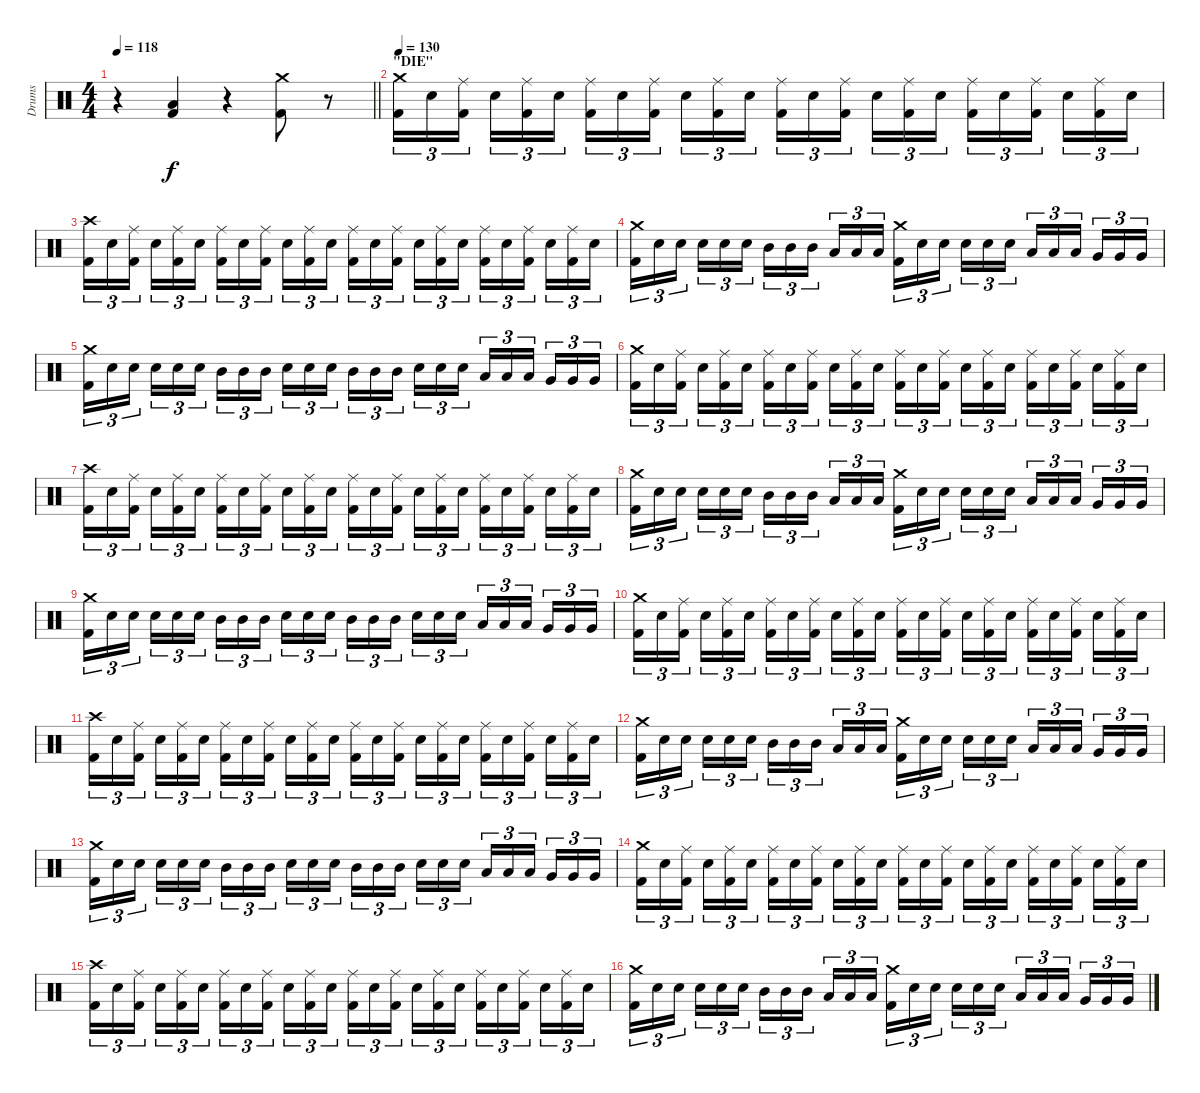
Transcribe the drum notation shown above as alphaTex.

\track ("Drums" "Drums") {instrument percussion}
\staff {score}
\articulation defaults
\ts (4 4)
\tempo 118
\clef neutral
\barLineRight lightlight
\ks c
r.4{dy f} ("Low Floor Tom (hit)" "Kick (hit) 2").4 r.4 ("Crash medium (hit)" "Kick (hit) 2").8 r.8{volume 0} |
\section ("" "\"DIE\"")
\tempo 130
("Crash medium (hit)" "Kick (hit) 2").16{tu (3 2) volume 16} "Electric Snare (hit)".16{tu (3 2)} ("Ride (middle)" "Kick (hit) 2").16{tu (3 2) beam splitsecondary} "Electric Snare (hit)".16{tu (3 2)} ("Ride (middle)" "Kick (hit) 2").16{tu (3 2)} "Electric Snare (hit)".16{tu (3 2)} ("Ride (middle)" "Kick (hit) 2").16{tu (3 2)} "Electric Snare (hit)".16{tu (3 2)} ("Ride (middle)" "Kick (hit) 2").16{tu (3 2) beam splitsecondary} "Electric Snare (hit)".16{tu (3 2)} ("Ride (middle)" "Kick (hit) 2").16{tu (3 2)} "Electric Snare (hit)".16{tu (3 2)} ("Ride (middle)" "Kick (hit) 2").16{tu (3 2)} "Electric Snare (hit)".16{tu (3 2)} ("Ride (middle)" "Kick (hit) 2").16{tu (3 2) beam splitsecondary} "Electric Snare (hit)".16{tu (3 2)} ("Ride (middle)" "Kick (hit) 2").16{tu (3 2)} "Electric Snare (hit)".16{tu (3 2)} ("Ride (middle)" "Kick (hit) 2").16{tu (3 2)} "Electric Snare (hit)".16{tu (3 2)} ("Ride (middle)" "Kick (hit) 2").16{tu (3 2) beam splitsecondary} "Electric Snare (hit)".16{tu (3 2)} ("Ride (middle)" "Kick (hit) 2").16{tu (3 2)} "Electric Snare (hit)".16{tu (3 2)} |
("Crash high (hit)" "Kick (hit) 2").16{tu (3 2)} "Electric Snare (hit)".16{tu (3 2)} ("Ride (middle)" "Kick (hit) 2").16{tu (3 2) beam splitsecondary} "Electric Snare (hit)".16{tu (3 2)} ("Ride (middle)" "Kick (hit) 2").16{tu (3 2)} "Electric Snare (hit)".16{tu (3 2)} ("Ride (middle)" "Kick (hit) 2").16{tu (3 2)} "Electric Snare (hit)".16{tu (3 2)} ("Ride (middle)" "Kick (hit) 2").16{tu (3 2) beam splitsecondary} "Electric Snare (hit)".16{tu (3 2)} ("Ride (middle)" "Kick (hit) 2").16{tu (3 2)} "Electric Snare (hit)".16{tu (3 2)} ("Ride (middle)" "Kick (hit) 2").16{tu (3 2)} "Electric Snare (hit)".16{tu (3 2)} ("Ride (middle)" "Kick (hit) 2").16{tu (3 2) beam splitsecondary} "Electric Snare (hit)".16{tu (3 2)} ("Ride (middle)" "Kick (hit) 2").16{tu (3 2)} "Electric Snare (hit)".16{tu (3 2)} ("Ride (middle)" "Kick (hit) 2").16{tu (3 2)} "Electric Snare (hit)".16{tu (3 2)} ("Ride (middle)" "Kick (hit) 2").16{tu (3 2) beam splitsecondary} "Electric Snare (hit)".16{tu (3 2)} ("Ride (middle)" "Kick (hit) 2").16{tu (3 2)} "Electric Snare (hit)".16{tu (3 2)} |
("Crash medium (hit)" "Kick (hit) 2").16{tu (3 2)} "Electric Snare (hit)".16{tu (3 2)} "Electric Snare (hit)".16{tu (3 2) beam splitsecondary} "Electric Snare (hit)".16{tu (3 2)} "Electric Snare (hit)".16{tu (3 2)} "Electric Snare (hit)".16{tu (3 2)} "Mid Tom (hit)".16{tu (3 2)} "Mid Tom (hit)".16{tu (3 2)} "Mid Tom (hit)".16{tu (3 2) beam splitsecondary} "Low Tom (hit)".16{tu (3 2)} "Low Tom (hit)".16{tu (3 2)} "Low Tom (hit)".16{tu (3 2)} ("Crash medium (hit)" "Kick (hit) 2").16{tu (3 2)} "Electric Snare (hit)".16{tu (3 2)} "Electric Snare (hit)".16{tu (3 2) beam splitsecondary} "Electric Snare (hit)".16{tu (3 2)} "Electric Snare (hit)".16{tu (3 2)} "Electric Snare (hit)".16{tu (3 2)} "Low Tom (hit)".16{tu (3 2)} "Low Tom (hit)".16{tu (3 2)} "Low Tom (hit)".16{tu (3 2) beam splitsecondary} "Very Low Tom (hit)".16{tu (3 2)} "Very Low Tom (hit)".16{tu (3 2)} "Very Low Tom (hit)".16{tu (3 2)} |
("Crash medium (hit)" "Kick (hit) 2").16{tu (3 2)} "Electric Snare (hit)".16{tu (3 2)} "Electric Snare (hit)".16{tu (3 2) beam splitsecondary} "Electric Snare (hit)".16{tu (3 2)} "Electric Snare (hit)".16{tu (3 2)} "Electric Snare (hit)".16{tu (3 2)} "Mid Tom (hit)".16{tu (3 2)} "Mid Tom (hit)".16{tu (3 2)} "Mid Tom (hit)".16{tu (3 2) beam splitsecondary} "Electric Snare (hit)".16{tu (3 2)} "Electric Snare (hit)".16{tu (3 2)} "Electric Snare (hit)".16{tu (3 2)} "Mid Tom (hit)".16{tu (3 2)} "Mid Tom (hit)".16{tu (3 2)} "Mid Tom (hit)".16{tu (3 2) beam splitsecondary} "Electric Snare (hit)".16{tu (3 2)} "Electric Snare (hit)".16{tu (3 2)} "Electric Snare (hit)".16{tu (3 2)} "Low Tom (hit)".16{tu (3 2)} "Low Tom (hit)".16{tu (3 2)} "Low Tom (hit)".16{tu (3 2) beam splitsecondary} "Very Low Tom (hit)".16{tu (3 2)} "Very Low Tom (hit)".16{tu (3 2)} "Very Low Tom (hit)".16{tu (3 2)} |
("Crash medium (hit)" "Kick (hit) 2").16{tu (3 2)} "Electric Snare (hit)".16{tu (3 2)} ("Ride (middle)" "Kick (hit) 2").16{tu (3 2) beam splitsecondary} "Electric Snare (hit)".16{tu (3 2)} ("Ride (middle)" "Kick (hit) 2").16{tu (3 2)} "Electric Snare (hit)".16{tu (3 2)} ("Ride (middle)" "Kick (hit) 2").16{tu (3 2)} "Electric Snare (hit)".16{tu (3 2)} ("Ride (middle)" "Kick (hit) 2").16{tu (3 2) beam splitsecondary} "Electric Snare (hit)".16{tu (3 2)} ("Ride (middle)" "Kick (hit) 2").16{tu (3 2)} "Electric Snare (hit)".16{tu (3 2)} ("Ride (middle)" "Kick (hit) 2").16{tu (3 2)} "Electric Snare (hit)".16{tu (3 2)} ("Ride (middle)" "Kick (hit) 2").16{tu (3 2) beam splitsecondary} "Electric Snare (hit)".16{tu (3 2)} ("Ride (middle)" "Kick (hit) 2").16{tu (3 2)} "Electric Snare (hit)".16{tu (3 2)} ("Ride (middle)" "Kick (hit) 2").16{tu (3 2)} "Electric Snare (hit)".16{tu (3 2)} ("Ride (middle)" "Kick (hit) 2").16{tu (3 2) beam splitsecondary} "Electric Snare (hit)".16{tu (3 2)} ("Ride (middle)" "Kick (hit) 2").16{tu (3 2)} "Electric Snare (hit)".16{tu (3 2)} |
("Crash high (hit)" "Kick (hit) 2").16{tu (3 2)} "Electric Snare (hit)".16{tu (3 2)} ("Ride (middle)" "Kick (hit) 2").16{tu (3 2) beam splitsecondary} "Electric Snare (hit)".16{tu (3 2)} ("Ride (middle)" "Kick (hit) 2").16{tu (3 2)} "Electric Snare (hit)".16{tu (3 2)} ("Ride (middle)" "Kick (hit) 2").16{tu (3 2)} "Electric Snare (hit)".16{tu (3 2)} ("Ride (middle)" "Kick (hit) 2").16{tu (3 2) beam splitsecondary} "Electric Snare (hit)".16{tu (3 2)} ("Ride (middle)" "Kick (hit) 2").16{tu (3 2)} "Electric Snare (hit)".16{tu (3 2)} ("Ride (middle)" "Kick (hit) 2").16{tu (3 2)} "Electric Snare (hit)".16{tu (3 2)} ("Ride (middle)" "Kick (hit) 2").16{tu (3 2) beam splitsecondary} "Electric Snare (hit)".16{tu (3 2)} ("Ride (middle)" "Kick (hit) 2").16{tu (3 2)} "Electric Snare (hit)".16{tu (3 2)} ("Ride (middle)" "Kick (hit) 2").16{tu (3 2)} "Electric Snare (hit)".16{tu (3 2)} ("Ride (middle)" "Kick (hit) 2").16{tu (3 2) beam splitsecondary} "Electric Snare (hit)".16{tu (3 2)} ("Ride (middle)" "Kick (hit) 2").16{tu (3 2)} "Electric Snare (hit)".16{tu (3 2)} |
("Crash medium (hit)" "Kick (hit) 2").16{tu (3 2)} "Electric Snare (hit)".16{tu (3 2)} "Electric Snare (hit)".16{tu (3 2) beam splitsecondary} "Electric Snare (hit)".16{tu (3 2)} "Electric Snare (hit)".16{tu (3 2)} "Electric Snare (hit)".16{tu (3 2)} "Mid Tom (hit)".16{tu (3 2)} "Mid Tom (hit)".16{tu (3 2)} "Mid Tom (hit)".16{tu (3 2) beam splitsecondary} "Low Tom (hit)".16{tu (3 2)} "Low Tom (hit)".16{tu (3 2)} "Low Tom (hit)".16{tu (3 2)} ("Crash medium (hit)" "Kick (hit) 2").16{tu (3 2)} "Electric Snare (hit)".16{tu (3 2)} "Electric Snare (hit)".16{tu (3 2) beam splitsecondary} "Electric Snare (hit)".16{tu (3 2)} "Electric Snare (hit)".16{tu (3 2)} "Electric Snare (hit)".16{tu (3 2)} "Low Tom (hit)".16{tu (3 2)} "Low Tom (hit)".16{tu (3 2)} "Low Tom (hit)".16{tu (3 2) beam splitsecondary} "Very Low Tom (hit)".16{tu (3 2)} "Very Low Tom (hit)".16{tu (3 2)} "Very Low Tom (hit)".16{tu (3 2)} |
("Crash medium (hit)" "Kick (hit) 2").16{tu (3 2)} "Electric Snare (hit)".16{tu (3 2)} "Electric Snare (hit)".16{tu (3 2) beam splitsecondary} "Electric Snare (hit)".16{tu (3 2)} "Electric Snare (hit)".16{tu (3 2)} "Electric Snare (hit)".16{tu (3 2)} "Mid Tom (hit)".16{tu (3 2)} "Mid Tom (hit)".16{tu (3 2)} "Mid Tom (hit)".16{tu (3 2) beam splitsecondary} "Electric Snare (hit)".16{tu (3 2)} "Electric Snare (hit)".16{tu (3 2)} "Electric Snare (hit)".16{tu (3 2)} "Mid Tom (hit)".16{tu (3 2)} "Mid Tom (hit)".16{tu (3 2)} "Mid Tom (hit)".16{tu (3 2) beam splitsecondary} "Electric Snare (hit)".16{tu (3 2)} "Electric Snare (hit)".16{tu (3 2)} "Electric Snare (hit)".16{tu (3 2)} "Low Tom (hit)".16{tu (3 2)} "Low Tom (hit)".16{tu (3 2)} "Low Tom (hit)".16{tu (3 2) beam splitsecondary} "Very Low Tom (hit)".16{tu (3 2)} "Very Low Tom (hit)".16{tu (3 2)} "Very Low Tom (hit)".16{tu (3 2)} |
("Crash medium (hit)" "Kick (hit) 2").16{tu (3 2)} "Electric Snare (hit)".16{tu (3 2)} ("Ride (middle)" "Kick (hit) 2").16{tu (3 2) beam splitsecondary} "Electric Snare (hit)".16{tu (3 2)} ("Ride (middle)" "Kick (hit) 2").16{tu (3 2)} "Electric Snare (hit)".16{tu (3 2)} ("Ride (middle)" "Kick (hit) 2").16{tu (3 2)} "Electric Snare (hit)".16{tu (3 2)} ("Ride (middle)" "Kick (hit) 2").16{tu (3 2) beam splitsecondary} "Electric Snare (hit)".16{tu (3 2)} ("Ride (middle)" "Kick (hit) 2").16{tu (3 2)} "Electric Snare (hit)".16{tu (3 2)} ("Ride (middle)" "Kick (hit) 2").16{tu (3 2)} "Electric Snare (hit)".16{tu (3 2)} ("Ride (middle)" "Kick (hit) 2").16{tu (3 2) beam splitsecondary} "Electric Snare (hit)".16{tu (3 2)} ("Ride (middle)" "Kick (hit) 2").16{tu (3 2)} "Electric Snare (hit)".16{tu (3 2)} ("Ride (middle)" "Kick (hit) 2").16{tu (3 2)} "Electric Snare (hit)".16{tu (3 2)} ("Ride (middle)" "Kick (hit) 2").16{tu (3 2) beam splitsecondary} "Electric Snare (hit)".16{tu (3 2)} ("Ride (middle)" "Kick (hit) 2").16{tu (3 2)} "Electric Snare (hit)".16{tu (3 2)} |
("Crash high (hit)" "Kick (hit) 2").16{tu (3 2)} "Electric Snare (hit)".16{tu (3 2)} ("Ride (middle)" "Kick (hit) 2").16{tu (3 2) beam splitsecondary} "Electric Snare (hit)".16{tu (3 2)} ("Ride (middle)" "Kick (hit) 2").16{tu (3 2)} "Electric Snare (hit)".16{tu (3 2)} ("Ride (middle)" "Kick (hit) 2").16{tu (3 2)} "Electric Snare (hit)".16{tu (3 2)} ("Ride (middle)" "Kick (hit) 2").16{tu (3 2) beam splitsecondary} "Electric Snare (hit)".16{tu (3 2)} ("Ride (middle)" "Kick (hit) 2").16{tu (3 2)} "Electric Snare (hit)".16{tu (3 2)} ("Ride (middle)" "Kick (hit) 2").16{tu (3 2)} "Electric Snare (hit)".16{tu (3 2)} ("Ride (middle)" "Kick (hit) 2").16{tu (3 2) beam splitsecondary} "Electric Snare (hit)".16{tu (3 2)} ("Ride (middle)" "Kick (hit) 2").16{tu (3 2)} "Electric Snare (hit)".16{tu (3 2)} ("Ride (middle)" "Kick (hit) 2").16{tu (3 2)} "Electric Snare (hit)".16{tu (3 2)} ("Ride (middle)" "Kick (hit) 2").16{tu (3 2) beam splitsecondary} "Electric Snare (hit)".16{tu (3 2)} ("Ride (middle)" "Kick (hit) 2").16{tu (3 2)} "Electric Snare (hit)".16{tu (3 2)} |
("Crash medium (hit)" "Kick (hit) 2").16{tu (3 2)} "Electric Snare (hit)".16{tu (3 2)} "Electric Snare (hit)".16{tu (3 2) beam splitsecondary} "Electric Snare (hit)".16{tu (3 2)} "Electric Snare (hit)".16{tu (3 2)} "Electric Snare (hit)".16{tu (3 2)} "Mid Tom (hit)".16{tu (3 2)} "Mid Tom (hit)".16{tu (3 2)} "Mid Tom (hit)".16{tu (3 2) beam splitsecondary} "Low Tom (hit)".16{tu (3 2)} "Low Tom (hit)".16{tu (3 2)} "Low Tom (hit)".16{tu (3 2)} ("Crash medium (hit)" "Kick (hit) 2").16{tu (3 2)} "Electric Snare (hit)".16{tu (3 2)} "Electric Snare (hit)".16{tu (3 2) beam splitsecondary} "Electric Snare (hit)".16{tu (3 2)} "Electric Snare (hit)".16{tu (3 2)} "Electric Snare (hit)".16{tu (3 2)} "Low Tom (hit)".16{tu (3 2)} "Low Tom (hit)".16{tu (3 2)} "Low Tom (hit)".16{tu (3 2) beam splitsecondary} "Very Low Tom (hit)".16{tu (3 2)} "Very Low Tom (hit)".16{tu (3 2)} "Very Low Tom (hit)".16{tu (3 2)} |
("Crash medium (hit)" "Kick (hit) 2").16{tu (3 2)} "Electric Snare (hit)".16{tu (3 2)} "Electric Snare (hit)".16{tu (3 2) beam splitsecondary} "Electric Snare (hit)".16{tu (3 2)} "Electric Snare (hit)".16{tu (3 2)} "Electric Snare (hit)".16{tu (3 2)} "Mid Tom (hit)".16{tu (3 2)} "Mid Tom (hit)".16{tu (3 2)} "Mid Tom (hit)".16{tu (3 2) beam splitsecondary} "Electric Snare (hit)".16{tu (3 2)} "Electric Snare (hit)".16{tu (3 2)} "Electric Snare (hit)".16{tu (3 2)} "Mid Tom (hit)".16{tu (3 2)} "Mid Tom (hit)".16{tu (3 2)} "Mid Tom (hit)".16{tu (3 2) beam splitsecondary} "Electric Snare (hit)".16{tu (3 2)} "Electric Snare (hit)".16{tu (3 2)} "Electric Snare (hit)".16{tu (3 2)} "Low Tom (hit)".16{tu (3 2)} "Low Tom (hit)".16{tu (3 2)} "Low Tom (hit)".16{tu (3 2) beam splitsecondary} "Very Low Tom (hit)".16{tu (3 2)} "Very Low Tom (hit)".16{tu (3 2)} "Very Low Tom (hit)".16{tu (3 2)} |
("Crash medium (hit)" "Kick (hit) 2").16{tu (3 2)} "Electric Snare (hit)".16{tu (3 2)} ("Ride (middle)" "Kick (hit) 2").16{tu (3 2) beam splitsecondary} "Electric Snare (hit)".16{tu (3 2)} ("Ride (middle)" "Kick (hit) 2").16{tu (3 2)} "Electric Snare (hit)".16{tu (3 2)} ("Ride (middle)" "Kick (hit) 2").16{tu (3 2)} "Electric Snare (hit)".16{tu (3 2)} ("Ride (middle)" "Kick (hit) 2").16{tu (3 2) beam splitsecondary} "Electric Snare (hit)".16{tu (3 2)} ("Ride (middle)" "Kick (hit) 2").16{tu (3 2)} "Electric Snare (hit)".16{tu (3 2)} ("Ride (middle)" "Kick (hit) 2").16{tu (3 2)} "Electric Snare (hit)".16{tu (3 2)} ("Ride (middle)" "Kick (hit) 2").16{tu (3 2) beam splitsecondary} "Electric Snare (hit)".16{tu (3 2)} ("Ride (middle)" "Kick (hit) 2").16{tu (3 2)} "Electric Snare (hit)".16{tu (3 2)} ("Ride (middle)" "Kick (hit) 2").16{tu (3 2)} "Electric Snare (hit)".16{tu (3 2)} ("Ride (middle)" "Kick (hit) 2").16{tu (3 2) beam splitsecondary} "Electric Snare (hit)".16{tu (3 2)} ("Ride (middle)" "Kick (hit) 2").16{tu (3 2)} "Electric Snare (hit)".16{tu (3 2)} |
("Crash high (hit)" "Kick (hit) 2").16{tu (3 2)} "Electric Snare (hit)".16{tu (3 2)} ("Ride (middle)" "Kick (hit) 2").16{tu (3 2) beam splitsecondary} "Electric Snare (hit)".16{tu (3 2)} ("Ride (middle)" "Kick (hit) 2").16{tu (3 2)} "Electric Snare (hit)".16{tu (3 2)} ("Ride (middle)" "Kick (hit) 2").16{tu (3 2)} "Electric Snare (hit)".16{tu (3 2)} ("Ride (middle)" "Kick (hit) 2").16{tu (3 2) beam splitsecondary} "Electric Snare (hit)".16{tu (3 2)} ("Ride (middle)" "Kick (hit) 2").16{tu (3 2)} "Electric Snare (hit)".16{tu (3 2)} ("Ride (middle)" "Kick (hit) 2").16{tu (3 2)} "Electric Snare (hit)".16{tu (3 2)} ("Ride (middle)" "Kick (hit) 2").16{tu (3 2) beam splitsecondary} "Electric Snare (hit)".16{tu (3 2)} ("Ride (middle)" "Kick (hit) 2").16{tu (3 2)} "Electric Snare (hit)".16{tu (3 2)} ("Ride (middle)" "Kick (hit) 2").16{tu (3 2)} "Electric Snare (hit)".16{tu (3 2)} ("Ride (middle)" "Kick (hit) 2").16{tu (3 2) beam splitsecondary} "Electric Snare (hit)".16{tu (3 2)} ("Ride (middle)" "Kick (hit) 2").16{tu (3 2)} "Electric Snare (hit)".16{tu (3 2)} |
("Crash medium (hit)" "Kick (hit) 2").16{tu (3 2)} "Electric Snare (hit)".16{tu (3 2)} "Electric Snare (hit)".16{tu (3 2) beam splitsecondary} "Electric Snare (hit)".16{tu (3 2)} "Electric Snare (hit)".16{tu (3 2)} "Electric Snare (hit)".16{tu (3 2)} "Mid Tom (hit)".16{tu (3 2)} "Mid Tom (hit)".16{tu (3 2)} "Mid Tom (hit)".16{tu (3 2) beam splitsecondary} "Low Tom (hit)".16{tu (3 2)} "Low Tom (hit)".16{tu (3 2)} "Low Tom (hit)".16{tu (3 2)} ("Crash medium (hit)" "Kick (hit) 2").16{tu (3 2)} "Electric Snare (hit)".16{tu (3 2)} "Electric Snare (hit)".16{tu (3 2) beam splitsecondary} "Electric Snare (hit)".16{tu (3 2)} "Electric Snare (hit)".16{tu (3 2)} "Electric Snare (hit)".16{tu (3 2)} "Low Tom (hit)".16{tu (3 2)} "Low Tom (hit)".16{tu (3 2)} "Low Tom (hit)".16{tu (3 2) beam splitsecondary} "Very Low Tom (hit)".16{tu (3 2)} "Very Low Tom (hit)".16{tu (3 2)} "Very Low Tom (hit)".16{tu (3 2)}
